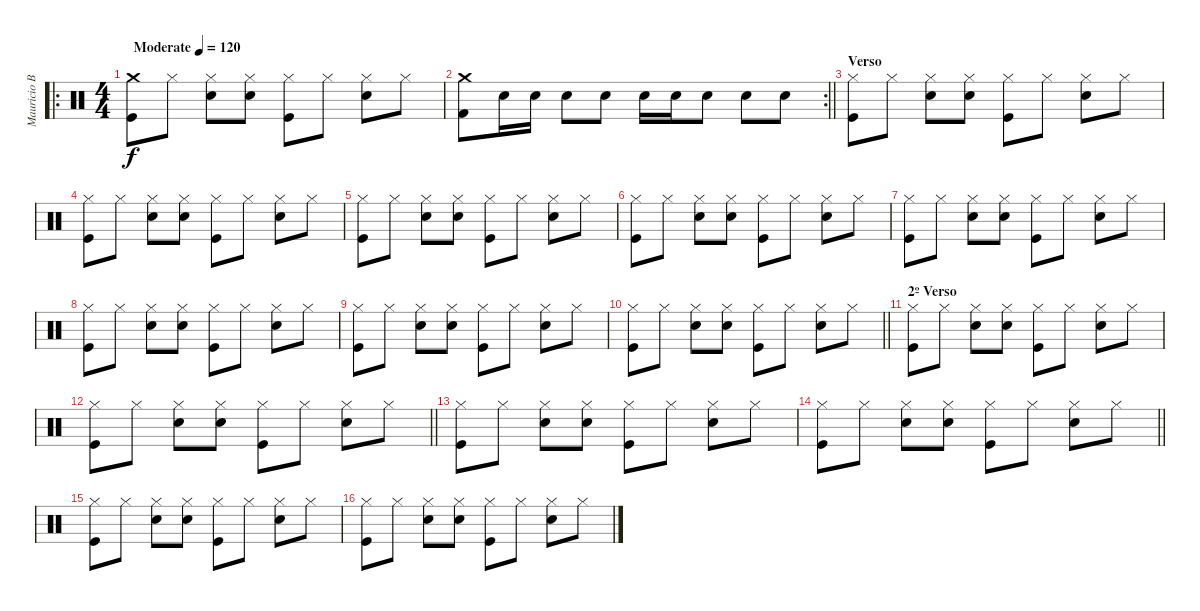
\track ("Mauricio Basualto" "Mauricio B") {instrument percussion}
\staff {score}
\articulation defaults
\ro
\ts (4 4)
\tempo (120 "Moderate")
\clef neutral
\ks c
("Crash medium (hit)" "Kick (hit)").8{dy f} "Hi-Hat (closed)".8 ("Hi-Hat (closed)" "Electric Snare (hit)").8 ("Hi-Hat (closed)" "Electric Snare (hit)").8 ("Hi-Hat (closed)" "Kick (hit)").8 "Hi-Hat (closed)".8 ("Hi-Hat (closed)" "Electric Snare (hit)").8 "Hi-Hat (closed)".8 |
\rc 2
\barLineRight lightlight
("Crash medium (hit)" "Kick (hit) 2").8 "Electric Snare (hit)".16 "Electric Snare (hit)".16 "Electric Snare (hit)".8 "Electric Snare (hit)".8 "Electric Snare (hit)".16 "Electric Snare (hit)".16 "Electric Snare (hit)".8 "Electric Snare (hit)".8 "Electric Snare (hit)".8 |
\section ("" "Verso")
("Hi-Hat (closed)" "Kick (hit)").8 "Hi-Hat (closed)".8 ("Hi-Hat (closed)" "Electric Snare (hit)").8 ("Hi-Hat (closed)" "Electric Snare (hit)").8 ("Hi-Hat (closed)" "Kick (hit)").8 "Hi-Hat (closed)".8 ("Hi-Hat (closed)" "Electric Snare (hit)").8 "Hi-Hat (closed)".8 |
("Hi-Hat (closed)" "Kick (hit)").8 "Hi-Hat (closed)".8 ("Hi-Hat (closed)" "Electric Snare (hit)").8 ("Hi-Hat (closed)" "Electric Snare (hit)").8 ("Hi-Hat (closed)" "Kick (hit)").8 "Hi-Hat (closed)".8 ("Hi-Hat (closed)" "Electric Snare (hit)").8 "Hi-Hat (closed)".8 |
("Hi-Hat (closed)" "Kick (hit)").8 "Hi-Hat (closed)".8 ("Hi-Hat (closed)" "Electric Snare (hit)").8 ("Hi-Hat (closed)" "Electric Snare (hit)").8 ("Hi-Hat (closed)" "Kick (hit)").8 "Hi-Hat (closed)".8 ("Hi-Hat (closed)" "Electric Snare (hit)").8 "Hi-Hat (closed)".8 |
("Hi-Hat (closed)" "Kick (hit)").8 "Hi-Hat (closed)".8 ("Hi-Hat (closed)" "Electric Snare (hit)").8 ("Hi-Hat (closed)" "Electric Snare (hit)").8 ("Hi-Hat (closed)" "Kick (hit)").8 "Hi-Hat (closed)".8 ("Hi-Hat (closed)" "Electric Snare (hit)").8 "Hi-Hat (closed)".8 |
("Hi-Hat (closed)" "Kick (hit)").8 "Hi-Hat (closed)".8 ("Hi-Hat (closed)" "Electric Snare (hit)").8 ("Hi-Hat (closed)" "Electric Snare (hit)").8 ("Hi-Hat (closed)" "Kick (hit)").8 "Hi-Hat (closed)".8 ("Hi-Hat (closed)" "Electric Snare (hit)").8 "Hi-Hat (closed)".8 |
("Hi-Hat (closed)" "Kick (hit)").8 "Hi-Hat (closed)".8 ("Hi-Hat (closed)" "Electric Snare (hit)").8 ("Hi-Hat (closed)" "Electric Snare (hit)").8 ("Hi-Hat (closed)" "Kick (hit)").8 "Hi-Hat (closed)".8 ("Hi-Hat (closed)" "Electric Snare (hit)").8 "Hi-Hat (closed)".8 |
("Hi-Hat (closed)" "Kick (hit)").8 "Hi-Hat (closed)".8 ("Hi-Hat (closed)" "Electric Snare (hit)").8 ("Hi-Hat (closed)" "Electric Snare (hit)").8 ("Hi-Hat (closed)" "Kick (hit)").8 "Hi-Hat (closed)".8 ("Hi-Hat (closed)" "Electric Snare (hit)").8 "Hi-Hat (closed)".8 |
\barLineRight lightlight
("Hi-Hat (closed)" "Kick (hit)").8 "Hi-Hat (closed)".8 ("Hi-Hat (closed)" "Electric Snare (hit)").8 ("Hi-Hat (closed)" "Electric Snare (hit)").8 ("Hi-Hat (closed)" "Kick (hit)").8 "Hi-Hat (closed)".8 ("Hi-Hat (closed)" "Electric Snare (hit)").8 "Hi-Hat (closed)".8 |
\section ("" "2º Verso")
("Hi-Hat (closed)" "Kick (hit)").8 "Hi-Hat (closed)".8 ("Hi-Hat (closed)" "Electric Snare (hit)").8 ("Hi-Hat (closed)" "Electric Snare (hit)").8 ("Hi-Hat (closed)" "Kick (hit)").8 "Hi-Hat (closed)".8 ("Hi-Hat (closed)" "Electric Snare (hit)").8 "Hi-Hat (closed)".8 |
\barLineRight lightlight
("Hi-Hat (closed)" "Kick (hit)").8 "Hi-Hat (closed)".8 ("Hi-Hat (closed)" "Electric Snare (hit)").8 ("Hi-Hat (closed)" "Electric Snare (hit)").8 ("Hi-Hat (closed)" "Kick (hit)").8 "Hi-Hat (closed)".8 ("Hi-Hat (closed)" "Electric Snare (hit)").8 "Hi-Hat (closed)".8 |
("Hi-Hat (closed)" "Kick (hit)").8 "Hi-Hat (closed)".8 ("Hi-Hat (closed)" "Electric Snare (hit)").8 ("Hi-Hat (closed)" "Electric Snare (hit)").8 ("Hi-Hat (closed)" "Kick (hit)").8 "Hi-Hat (closed)".8 ("Hi-Hat (closed)" "Electric Snare (hit)").8 "Hi-Hat (closed)".8 |
\barLineRight lightlight
("Hi-Hat (closed)" "Kick (hit)").8 "Hi-Hat (closed)".8 ("Hi-Hat (closed)" "Electric Snare (hit)").8 ("Hi-Hat (closed)" "Electric Snare (hit)").8 ("Hi-Hat (closed)" "Kick (hit)").8 "Hi-Hat (closed)".8 ("Hi-Hat (closed)" "Electric Snare (hit)").8 "Hi-Hat (closed)".8 |
("Hi-Hat (closed)" "Kick (hit)").8 "Hi-Hat (closed)".8 ("Hi-Hat (closed)" "Electric Snare (hit)").8 ("Hi-Hat (closed)" "Electric Snare (hit)").8 ("Hi-Hat (closed)" "Kick (hit)").8 "Hi-Hat (closed)".8 ("Hi-Hat (closed)" "Electric Snare (hit)").8 "Hi-Hat (closed)".8 |
("Hi-Hat (closed)" "Kick (hit)").8 "Hi-Hat (closed)".8 ("Hi-Hat (closed)" "Electric Snare (hit)").8 ("Hi-Hat (closed)" "Electric Snare (hit)").8 ("Hi-Hat (closed)" "Kick (hit)").8 "Hi-Hat (closed)".8 ("Hi-Hat (closed)" "Electric Snare (hit)").8 "Hi-Hat (closed)".8
